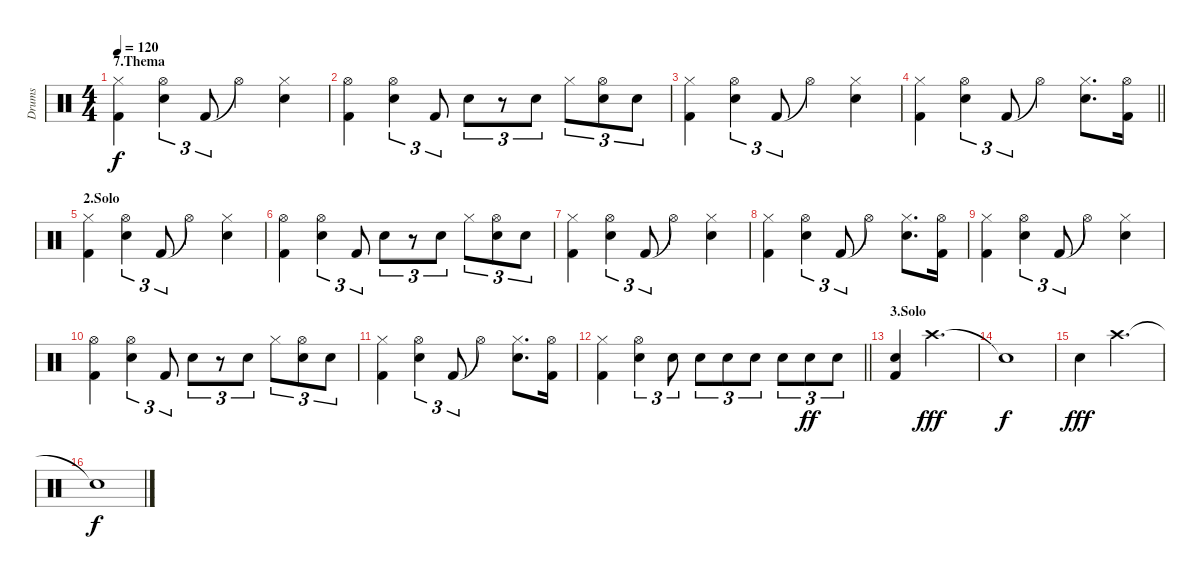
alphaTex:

\track ("Drums" "Drums") {instrument percussion}
\staff {score}
\articulation defaults
\ts (4 4)
\section ("" "7.Thema")
\tempo 120
\clef neutral
\ks c
("Hi-Hat (closed)" "Kick (hit) 2").4{dy f} ("Hi-Hat (open)" "Snare (hit) 2").4{tu (3 2)} "Kick (hit) 2".8{tu (3 2)} "Hi-Hat (open)"{t}.4 ("Hi-Hat (closed)" "Snare (hit) 2").4 |
("Hi-Hat (open)" "Kick (hit) 2").4 ("Hi-Hat (open)" "Snare (hit) 2").4{tu (3 2)} "Kick (hit) 2".8{tu (3 2)} "Snare (hit) 2".8{tu (3 2)} r.8{tu (3 2)} "Snare (hit) 2".8{tu (3 2)} "Hi-Hat (closed)".8{tu (3 2)} ("Hi-Hat (open)" "Snare (hit) 2").8{tu (3 2)} "Snare (hit) 2".8{tu (3 2)} |
("Hi-Hat (closed)" "Kick (hit) 2").4 ("Hi-Hat (open)" "Snare (hit) 2").4{tu (3 2)} "Kick (hit) 2".8{tu (3 2)} "Hi-Hat (open)"{t}.4 ("Hi-Hat (closed)" "Snare (hit) 2").4 |
\barLineRight lightlight
("Hi-Hat (closed)" "Kick (hit) 2").4 ("Hi-Hat (open)" "Snare (hit) 2").4{tu (3 2)} "Kick (hit) 2".8{tu (3 2)} "Hi-Hat (open)"{t}.4 ("Hi-Hat (closed)" "Snare (hit) 2").8{d} ("Hi-Hat (open)" "Kick (hit) 2").16 |
\section ("" "2.Solo")
("Hi-Hat (closed)" "Kick (hit) 2").4 ("Hi-Hat (open)" "Snare (hit) 2").4{tu (3 2)} "Kick (hit) 2".8{tu (3 2)} "Hi-Hat (open)"{t}.4 ("Hi-Hat (closed)" "Snare (hit) 2").4 |
("Hi-Hat (open)" "Kick (hit) 2").4 ("Hi-Hat (open)" "Snare (hit) 2").4{tu (3 2)} "Kick (hit) 2".8{tu (3 2)} "Snare (hit) 2".8{tu (3 2)} r.8{tu (3 2)} "Snare (hit) 2".8{tu (3 2)} "Hi-Hat (closed)".8{tu (3 2)} ("Hi-Hat (open)" "Snare (hit) 2").8{tu (3 2)} "Snare (hit) 2".8{tu (3 2)} |
("Hi-Hat (closed)" "Kick (hit) 2").4 ("Hi-Hat (open)" "Snare (hit) 2").4{tu (3 2)} "Kick (hit) 2".8{tu (3 2)} "Hi-Hat (open)"{t}.4 ("Hi-Hat (closed)" "Snare (hit) 2").4 |
("Hi-Hat (closed)" "Kick (hit) 2").4 ("Hi-Hat (open)" "Snare (hit) 2").4{tu (3 2)} "Kick (hit) 2".8{tu (3 2)} "Hi-Hat (open)"{t}.4 ("Hi-Hat (closed)" "Snare (hit) 2").8{d} ("Hi-Hat (open)" "Kick (hit) 2").16 |
("Hi-Hat (closed)" "Kick (hit) 2").4 ("Hi-Hat (open)" "Snare (hit) 2").4{tu (3 2)} "Kick (hit) 2".8{tu (3 2)} "Hi-Hat (open)"{t}.4 ("Hi-Hat (closed)" "Snare (hit) 2").4 |
("Hi-Hat (open)" "Kick (hit) 2").4 ("Hi-Hat (open)" "Snare (hit) 2").4{tu (3 2)} "Kick (hit) 2".8{tu (3 2)} "Snare (hit) 2".8{tu (3 2)} r.8{tu (3 2)} "Snare (hit) 2".8{tu (3 2)} "Hi-Hat (closed)".8{tu (3 2)} ("Hi-Hat (open)" "Snare (hit) 2").8{tu (3 2)} "Snare (hit) 2".8{tu (3 2)} |
("Hi-Hat (closed)" "Kick (hit) 2").4 ("Hi-Hat (open)" "Snare (hit) 2").4{tu (3 2)} "Kick (hit) 2".8{tu (3 2)} "Hi-Hat (open)"{t}.4 ("Hi-Hat (closed)" "Snare (hit) 2").8{d} ("Hi-Hat (open)" "Kick (hit) 2").16 |
\barLineRight lightlight
("Hi-Hat (closed)" "Kick (hit) 2").4 ("Hi-Hat (open)" "Snare (hit) 2").4{tu (3 2)} "Snare (hit) 2".8{tu (3 2)} "Electric Snare (hit)".8{tu (3 2)} "Electric Snare (hit)".8{tu (3 2)} "Electric Snare (hit)".8{tu (3 2)} "Electric Snare (hit)".8{tu (3 2)} "Electric Snare (hit)".8{tu (3 2) dy ff} "Electric Snare (hit)".8{tu (3 2)} |
\section ("" "3.Solo")
("Electric Snare (hit)" "Kick (hit) 2").4 "Crash high (hit)".2{d dy fff} |
"Snare (hit)"{t}.1{dy f} |
"Electric Snare (hit)".4{dy fff} "Crash high (hit)".2{d} |
"Snare (hit)"{t}.1{dy f}
